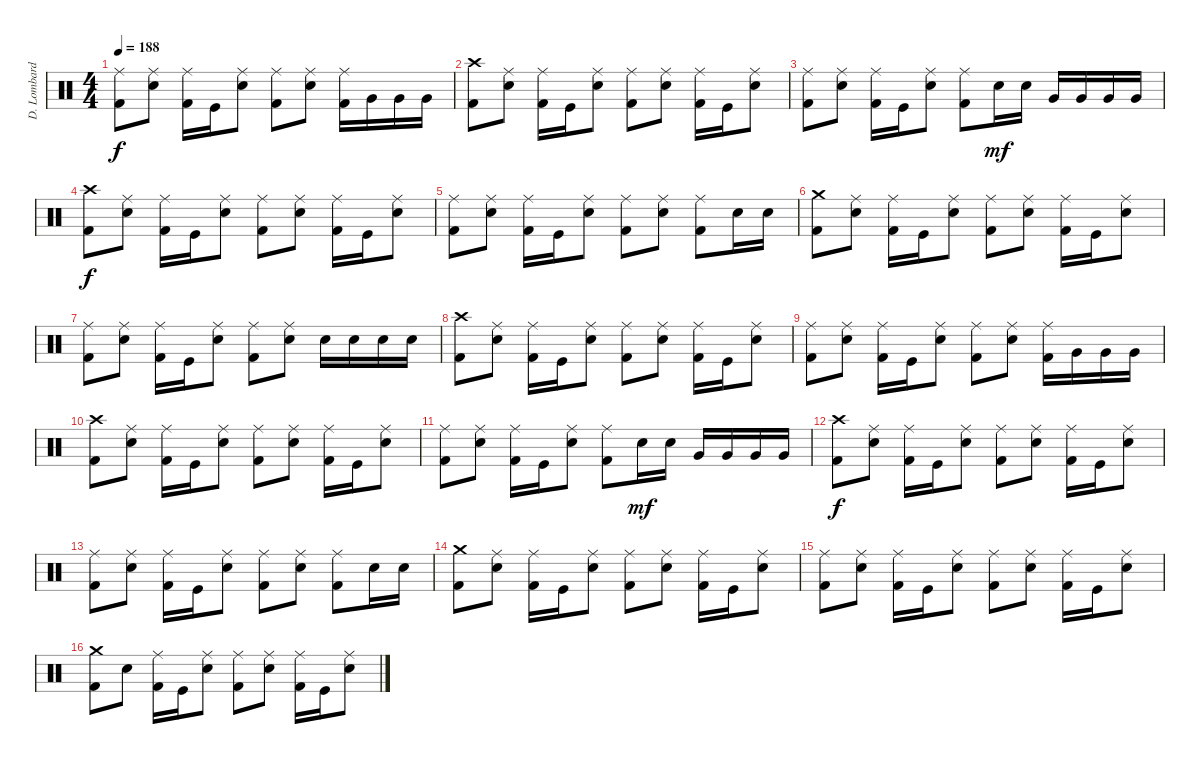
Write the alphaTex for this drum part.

\track ("D. Lombardo" "D. Lombard") {instrument percussion}
\staff {score}
\articulation defaults
\ts (4 4)
\tempo 188
\clef neutral
\ks c
("Ride (middle)" "Kick (hit) 2").8{dy f} ("Ride (middle)" "Electric Snare (hit)").8 ("Ride (middle)" "Kick (hit) 2").16 "Kick (hit)".16 ("Ride (middle)" "Electric Snare (hit)").8 ("Ride (middle)" "Kick (hit) 2").8 ("Ride (middle)" "Electric Snare (hit)").8 ("Ride (middle)" "Kick (hit) 2").16 "Very Low Tom (hit)".16 "Very Low Tom (hit)".16 "Very Low Tom (hit)".16 |
("Crash high (hit)" "Kick (hit) 2").8 ("Ride (middle)" "Electric Snare (hit)").8 ("Ride (middle)" "Kick (hit) 2").16 "Kick (hit)".16 ("Ride (middle)" "Electric Snare (hit)").8 ("Ride (middle)" "Kick (hit) 2").8 ("Ride (middle)" "Electric Snare (hit)").8 ("Ride (middle)" "Kick (hit) 2").16 "Kick (hit)".16 ("Ride (middle)" "Electric Snare (hit)").8 |
("Ride (middle)" "Kick (hit) 2").8 ("Ride (middle)" "Electric Snare (hit)").8 ("Ride (middle)" "Kick (hit) 2").16 "Kick (hit)".16 ("Ride (middle)" "Electric Snare (hit)").8 ("Ride (middle)" "Kick (hit) 2").8 "Electric Snare (hit)".16{dy mf} "Electric Snare (hit)".16 "Very Low Tom (hit)".16 "Very Low Tom (hit)".16 "Very Low Tom (hit)".16 "Very Low Tom (hit)".16 |
("Crash high (hit)" "Kick (hit) 2").8{dy f} ("Ride (middle)" "Electric Snare (hit)").8 ("Ride (middle)" "Kick (hit) 2").16 "Kick (hit)".16 ("Ride (middle)" "Electric Snare (hit)").8 ("Ride (middle)" "Kick (hit) 2").8 ("Ride (middle)" "Electric Snare (hit)").8 ("Ride (middle)" "Kick (hit) 2").16 "Kick (hit)".16 ("Ride (middle)" "Electric Snare (hit)").8 |
("Ride (middle)" "Kick (hit) 2").8 ("Ride (middle)" "Electric Snare (hit)").8 ("Ride (middle)" "Kick (hit) 2").16 "Kick (hit)".16 ("Ride (middle)" "Electric Snare (hit)").8 ("Ride (middle)" "Kick (hit) 2").8 ("Ride (middle)" "Electric Snare (hit)").8 ("Ride (middle)" "Kick (hit) 2").8 "Electric Snare (hit)".16 "Electric Snare (hit)".16 |
("Crash medium (hit)" "Kick (hit) 2").8 ("Ride (middle)" "Electric Snare (hit)").8 ("Ride (middle)" "Kick (hit) 2").16 "Kick (hit)".16 ("Ride (middle)" "Electric Snare (hit)").8 ("Ride (middle)" "Kick (hit) 2").8 ("Ride (middle)" "Electric Snare (hit)").8 ("Ride (middle)" "Kick (hit) 2").16 "Kick (hit)".16 ("Ride (middle)" "Electric Snare (hit)").8 |
("Ride (middle)" "Kick (hit) 2").8 ("Ride (middle)" "Electric Snare (hit)").8 ("Ride (middle)" "Kick (hit) 2").16 "Kick (hit)".16 ("Ride (middle)" "Electric Snare (hit)").8 ("Ride (middle)" "Kick (hit) 2").8 ("Ride (middle)" "Electric Snare (hit)").8 "Electric Snare (hit)".16 "Electric Snare (hit)".16 "Electric Snare (hit)".16 "Electric Snare (hit)".16 |
("Crash high (hit)" "Kick (hit) 2").8 ("Ride (middle)" "Electric Snare (hit)").8 ("Ride (middle)" "Kick (hit) 2").16 "Kick (hit)".16 ("Ride (middle)" "Electric Snare (hit)").8 ("Ride (middle)" "Kick (hit) 2").8 ("Ride (middle)" "Electric Snare (hit)").8 ("Ride (middle)" "Kick (hit) 2").16 "Kick (hit)".16 ("Ride (middle)" "Electric Snare (hit)").8 |
("Ride (middle)" "Kick (hit) 2").8 ("Ride (middle)" "Electric Snare (hit)").8 ("Ride (middle)" "Kick (hit) 2").16 "Kick (hit)".16 ("Ride (middle)" "Electric Snare (hit)").8 ("Ride (middle)" "Kick (hit) 2").8 ("Ride (middle)" "Electric Snare (hit)").8 ("Ride (middle)" "Kick (hit) 2").16 "Very Low Tom (hit)".16 "Very Low Tom (hit)".16 "Very Low Tom (hit)".16 |
("Crash high (hit)" "Kick (hit) 2").8 ("Ride (middle)" "Electric Snare (hit)").8 ("Ride (middle)" "Kick (hit) 2").16 "Kick (hit)".16 ("Ride (middle)" "Electric Snare (hit)").8 ("Ride (middle)" "Kick (hit) 2").8 ("Ride (middle)" "Electric Snare (hit)").8 ("Ride (middle)" "Kick (hit) 2").16 "Kick (hit)".16 ("Ride (middle)" "Electric Snare (hit)").8 |
("Ride (middle)" "Kick (hit) 2").8 ("Ride (middle)" "Electric Snare (hit)").8 ("Ride (middle)" "Kick (hit) 2").16 "Kick (hit)".16 ("Ride (middle)" "Electric Snare (hit)").8 ("Ride (middle)" "Kick (hit) 2").8 "Electric Snare (hit)".16{dy mf} "Electric Snare (hit)".16 "Very Low Tom (hit)".16 "Very Low Tom (hit)".16 "Very Low Tom (hit)".16 "Very Low Tom (hit)".16 |
("Crash high (hit)" "Kick (hit) 2").8{dy f} ("Ride (middle)" "Electric Snare (hit)").8 ("Ride (middle)" "Kick (hit) 2").16 "Kick (hit)".16 ("Ride (middle)" "Electric Snare (hit)").8 ("Ride (middle)" "Kick (hit) 2").8 ("Ride (middle)" "Electric Snare (hit)").8 ("Ride (middle)" "Kick (hit) 2").16 "Kick (hit)".16 ("Ride (middle)" "Electric Snare (hit)").8 |
("Ride (middle)" "Kick (hit) 2").8 ("Ride (middle)" "Electric Snare (hit)").8 ("Ride (middle)" "Kick (hit) 2").16 "Kick (hit)".16 ("Ride (middle)" "Electric Snare (hit)").8 ("Ride (middle)" "Kick (hit) 2").8 ("Ride (middle)" "Electric Snare (hit)").8 ("Ride (middle)" "Kick (hit) 2").8 "Electric Snare (hit)".16 "Electric Snare (hit)".16 |
("Crash medium (hit)" "Kick (hit) 2").8 ("Ride (middle)" "Electric Snare (hit)").8 ("Ride (middle)" "Kick (hit) 2").16 "Kick (hit)".16 ("Ride (middle)" "Electric Snare (hit)").8 ("Ride (middle)" "Kick (hit) 2").8 ("Ride (middle)" "Electric Snare (hit)").8 ("Ride (middle)" "Kick (hit) 2").16 "Kick (hit)".16 ("Ride (middle)" "Electric Snare (hit)").8 |
("Ride (middle)" "Kick (hit) 2").8 ("Ride (middle)" "Electric Snare (hit)").8 ("Ride (middle)" "Kick (hit) 2").16 "Kick (hit)".16 ("Ride (middle)" "Electric Snare (hit)").8 ("Ride (middle)" "Kick (hit) 2").8 ("Ride (middle)" "Electric Snare (hit)").8 ("Ride (middle)" "Kick (hit) 2").16 "Kick (hit)".16 ("Ride (middle)" "Electric Snare (hit)").8 |
("Crash medium (hit)" "Kick (hit) 2").8 "Electric Snare (hit)".8 ("Ride (middle)" "Kick (hit) 2").16 "Kick (hit)".16 ("Ride (middle)" "Electric Snare (hit)").8 ("Ride (middle)" "Kick (hit) 2").8 ("Ride (middle)" "Electric Snare (hit)").8 ("Ride (middle)" "Kick (hit) 2").16 "Kick (hit)".16 ("Ride (middle)" "Electric Snare (hit)").8
